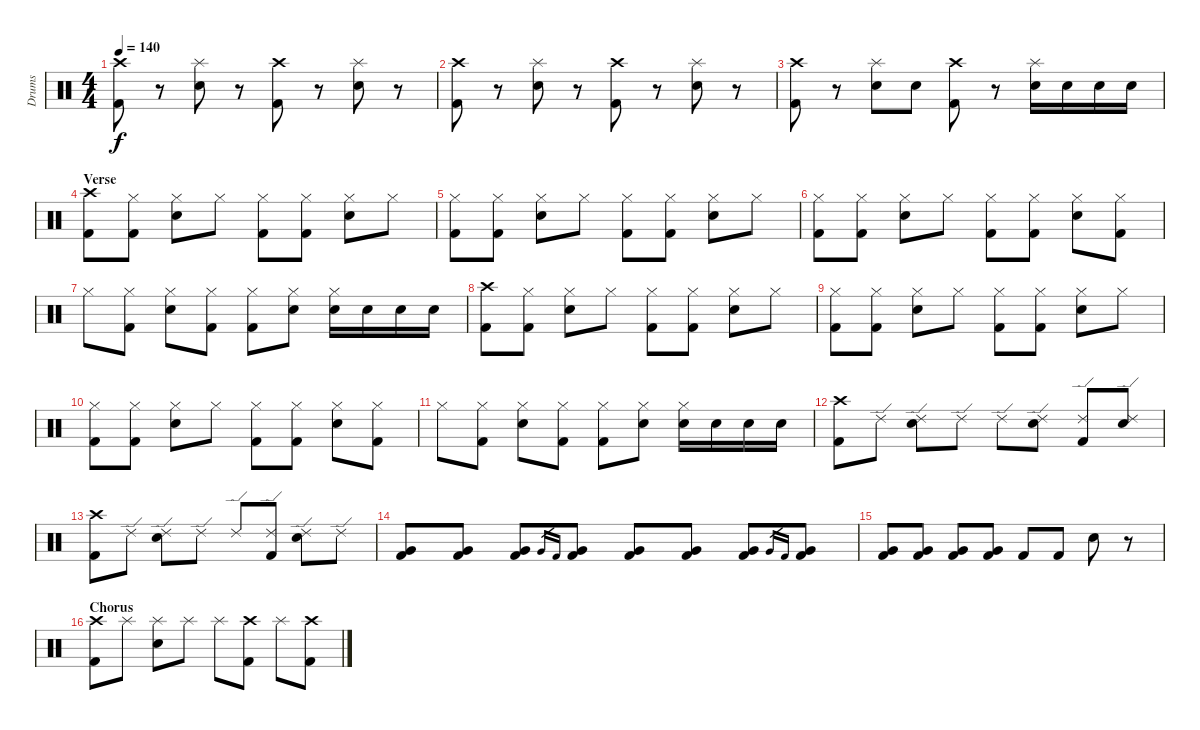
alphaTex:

\track ("Drums" "Drums") {instrument percussion}
\staff {score}
\articulation defaults
\ts (4 4)
\tempo 140
\clef neutral
\ks c
("Crash high (hit)" "Kick (hit) 2").8{dy f} r.8 ("Splash (hit)" "Electric Snare (hit)").8 r.8 ("Crash high (hit)" "Kick (hit) 2").8 r.8 ("Splash (hit)" "Electric Snare (hit)").8 r.8 |
("Crash high (hit)" "Kick (hit) 2").8 r.8 ("Splash (hit)" "Electric Snare (hit)").8 r.8 ("Crash high (hit)" "Kick (hit) 2").8 r.8 ("Splash (hit)" "Electric Snare (hit)").8 r.8 |
("Crash high (hit)" "Kick (hit) 2").8 r.8 ("Splash (hit)" "Electric Snare (hit)").8 "Electric Snare (hit)".8 ("Crash high (hit)" "Kick (hit) 2").8 r.8 ("Splash (hit)" "Electric Snare (hit)").16 "Electric Snare (hit)".16 "Electric Snare (hit)".16 "Electric Snare (hit)".16 |
\section ("" "Verse")
("Crash high (hit)" "Kick (hit) 2").8 ("Hi-Hat (closed)" "Kick (hit) 2").8 ("Hi-Hat (closed)" "Electric Snare (hit)").8 "Hi-Hat (closed)".8 ("Hi-Hat (closed)" "Kick (hit) 2").8 ("Hi-Hat (closed)" "Kick (hit) 2").8 ("Hi-Hat (closed)" "Electric Snare (hit)").8 "Hi-Hat (closed)".8 |
("Hi-Hat (closed)" "Kick (hit) 2").8 ("Hi-Hat (closed)" "Kick (hit) 2").8 ("Hi-Hat (closed)" "Electric Snare (hit)").8 "Hi-Hat (closed)".8 ("Hi-Hat (closed)" "Kick (hit) 2").8 ("Hi-Hat (closed)" "Kick (hit) 2").8 ("Hi-Hat (closed)" "Electric Snare (hit)").8 "Hi-Hat (closed)".8 |
("Hi-Hat (closed)" "Kick (hit) 2").8 ("Hi-Hat (closed)" "Kick (hit) 2").8 ("Hi-Hat (closed)" "Electric Snare (hit)").8 "Hi-Hat (closed)".8 ("Hi-Hat (closed)" "Kick (hit) 2").8 ("Hi-Hat (closed)" "Kick (hit) 2").8 ("Hi-Hat (closed)" "Electric Snare (hit)").8 ("Hi-Hat (closed)" "Kick (hit) 2").8 |
"Hi-Hat (closed)".8 ("Hi-Hat (closed)" "Kick (hit) 2").8 ("Hi-Hat (closed)" "Electric Snare (hit)").8 ("Hi-Hat (closed)" "Kick (hit) 2").8 ("Hi-Hat (closed)" "Kick (hit) 2").8 ("Hi-Hat (closed)" "Electric Snare (hit)").8 ("Hi-Hat (closed)" "Electric Snare (hit)").16 "Electric Snare (hit)".16 "Electric Snare (hit)".16 "Electric Snare (hit)".16 |
("Crash high (hit)" "Kick (hit) 2").8 ("Hi-Hat (closed)" "Kick (hit) 2").8 ("Hi-Hat (closed)" "Electric Snare (hit)").8 "Hi-Hat (closed)".8 ("Hi-Hat (closed)" "Kick (hit) 2").8 ("Hi-Hat (closed)" "Kick (hit) 2").8 ("Hi-Hat (closed)" "Electric Snare (hit)").8 "Hi-Hat (closed)".8 |
("Hi-Hat (closed)" "Kick (hit) 2").8 ("Hi-Hat (closed)" "Kick (hit) 2").8 ("Hi-Hat (closed)" "Electric Snare (hit)").8 "Hi-Hat (closed)".8 ("Hi-Hat (closed)" "Kick (hit) 2").8 ("Hi-Hat (closed)" "Kick (hit) 2").8 ("Hi-Hat (closed)" "Electric Snare (hit)").8 "Hi-Hat (closed)".8 |
("Hi-Hat (closed)" "Kick (hit) 2").8 ("Hi-Hat (closed)" "Kick (hit) 2").8 ("Hi-Hat (closed)" "Electric Snare (hit)").8 "Hi-Hat (closed)".8 ("Hi-Hat (closed)" "Kick (hit) 2").8 ("Hi-Hat (closed)" "Kick (hit) 2").8 ("Hi-Hat (closed)" "Electric Snare (hit)").8 ("Hi-Hat (closed)" "Kick (hit) 2").8 |
"Hi-Hat (closed)".8 ("Hi-Hat (closed)" "Kick (hit) 2").8 ("Hi-Hat (closed)" "Electric Snare (hit)").8 ("Hi-Hat (closed)" "Kick (hit) 2").8 ("Hi-Hat (closed)" "Kick (hit) 2").8 ("Hi-Hat (closed)" "Electric Snare (hit)").8 ("Hi-Hat (closed)" "Electric Snare (hit)").16 "Electric Snare (hit)".16 "Electric Snare (hit)".16 "Electric Snare (hit)".16 |
("Crash high (hit)" "Kick (hit) 2").8 "Ride (edge) 2".8 ("Ride (edge) 2" "Electric Snare (hit)").8 "Ride (edge) 2".8 "Ride (edge) 2".8 ("Ride (edge) 2" "Electric Snare (hit)").8 ("Ride (edge) 2" "Kick (hit) 2").8 ("Ride (edge) 2" "Electric Snare (hit)").8 |
("Crash high (hit)" "Kick (hit) 2").8 "Ride (edge) 2".8 ("Ride (edge) 2" "Electric Snare (hit)").8 "Ride (edge) 2".8 "Ride (edge) 2".8 ("Ride (edge) 2" "Kick (hit) 2").8 ("Ride (edge) 2" "Electric Snare (hit)").8 "Ride (edge) 2".8 |
("Very Low Tom (hit)" "Kick (hit) 2").8 ("Very Low Tom (hit)" "Kick (hit) 2").8 ("Very Low Tom (hit)" "Kick (hit) 2").8 "Very Low Tom (hit)".16{gr} "Kick (hit) 2".16{gr} ("Very Low Tom (hit)" "Kick (hit) 2").8 ("Very Low Tom (hit)" "Kick (hit) 2").8 ("Very Low Tom (hit)" "Kick (hit) 2").8 ("Very Low Tom (hit)" "Kick (hit) 2").8 "Very Low Tom (hit)".16{gr} "Kick (hit) 2".16{gr} ("Very Low Tom (hit)" "Kick (hit) 2").8 |
("Very Low Tom (hit)" "Kick (hit) 2").8 ("Very Low Tom (hit)" "Kick (hit) 2").8 ("Very Low Tom (hit)" "Kick (hit) 2").8 ("Very Low Tom (hit)" "Kick (hit) 2").8 "Kick (hit) 2".8 "Kick (hit) 2".8 "Electric Snare (hit)".8 r.8 |
\section ("" "Chorus")
("Crash high (hit)" "Kick (hit) 2").8 "Splash (hit)".8 ("Splash (hit)" "Electric Snare (hit)").8 "Splash (hit)".8 "Splash (hit)".8 ("Crash high (hit)" "Kick (hit) 2").8 "Splash (hit)".8 ("Crash high (hit)" "Kick (hit) 2").8
